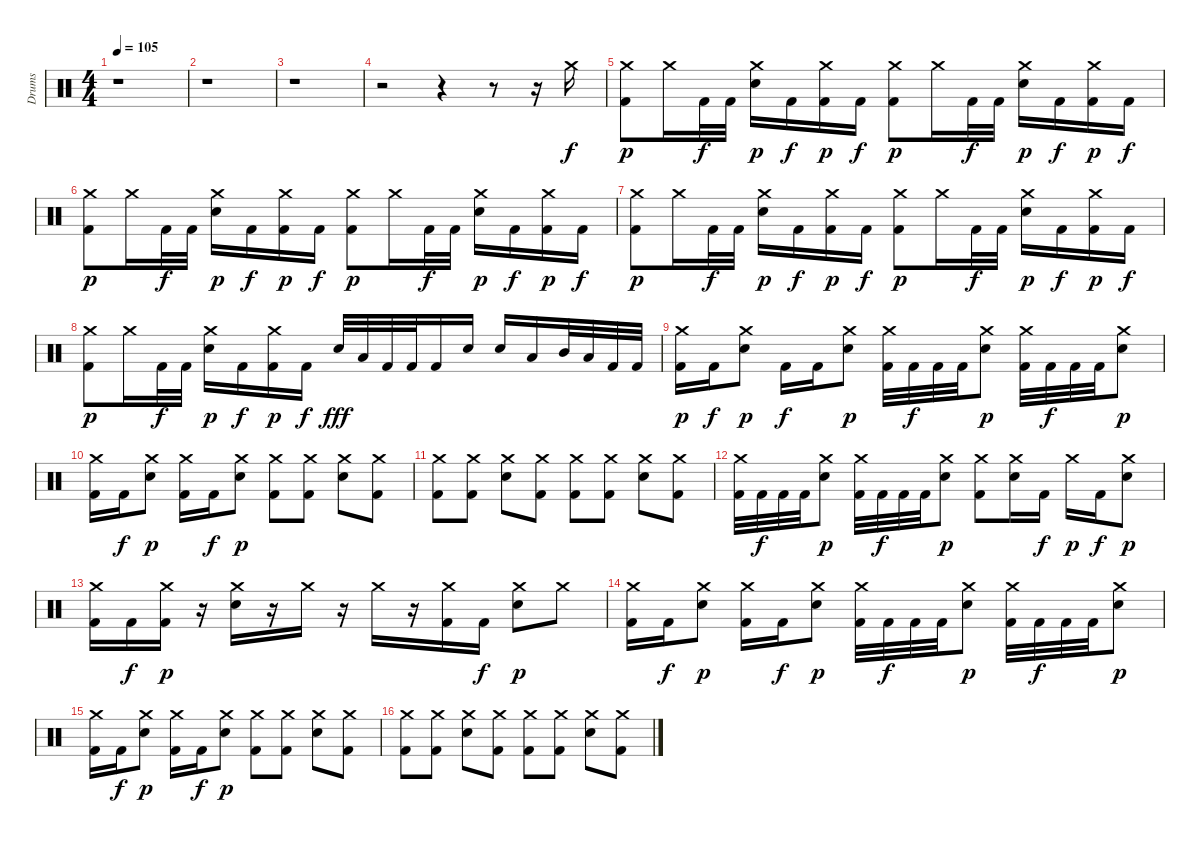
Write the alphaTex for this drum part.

\track ("Drums" "Drums") {instrument percussion}
\staff {score}
\articulation defaults
\ts (4 4)
\tempo 105
\clef neutral
\ks c
r.1{dy f} |
r.1 |
r.1 |
r.2 r.4 r.8 r.16 "Crash medium (hit)".16 |
("Crash medium (hit)" "Kick (hit) 2").8{dy p} "Crash medium (hit)".16 "Kick (hit) 2".32{dy f} "Kick (hit) 2".32 ("Crash medium (hit)" "Electric Snare (hit)").16{dy p} "Kick (hit) 2".16{dy f} ("Crash medium (hit)" "Kick (hit) 2").16{dy p} "Kick (hit) 2".16{dy f} ("Crash medium (hit)" "Kick (hit) 2").8{dy p} "Crash medium (hit)".16 "Kick (hit) 2".32{dy f} "Kick (hit) 2".32 ("Crash medium (hit)" "Electric Snare (hit)").16{dy p} "Kick (hit) 2".16{dy f} ("Crash medium (hit)" "Kick (hit) 2").16{dy p} "Kick (hit) 2".16{dy f} |
("Crash medium (hit)" "Kick (hit) 2").8{dy p} "Crash medium (hit)".16 "Kick (hit) 2".32{dy f} "Kick (hit) 2".32 ("Crash medium (hit)" "Electric Snare (hit)").16{dy p} "Kick (hit) 2".16{dy f} ("Crash medium (hit)" "Kick (hit) 2").16{dy p} "Kick (hit) 2".16{dy f} ("Crash medium (hit)" "Kick (hit) 2").8{dy p} "Crash medium (hit)".16 "Kick (hit) 2".32{dy f} "Kick (hit) 2".32 ("Crash medium (hit)" "Electric Snare (hit)").16{dy p} "Kick (hit) 2".16{dy f} ("Crash medium (hit)" "Kick (hit) 2").16{dy p} "Kick (hit) 2".16{dy f} |
("Crash medium (hit)" "Kick (hit) 2").8{dy p} "Crash medium (hit)".16 "Kick (hit) 2".32{dy f} "Kick (hit) 2".32 ("Crash medium (hit)" "Electric Snare (hit)").16{dy p} "Kick (hit) 2".16{dy f} ("Crash medium (hit)" "Kick (hit) 2").16{dy p} "Kick (hit) 2".16{dy f} ("Crash medium (hit)" "Kick (hit) 2").8{dy p} "Crash medium (hit)".16 "Kick (hit) 2".32{dy f} "Kick (hit) 2".32 ("Crash medium (hit)" "Electric Snare (hit)").16{dy p} "Kick (hit) 2".16{dy f} ("Crash medium (hit)" "Kick (hit) 2").16{dy p} "Kick (hit) 2".16{dy f} |
("Crash medium (hit)" "Kick (hit) 2").8{dy p} "Crash medium (hit)".16 "Kick (hit) 2".32{dy f} "Kick (hit) 2".32 ("Crash medium (hit)" "Electric Snare (hit)").16{dy p} "Kick (hit) 2".16{dy f} ("Crash medium (hit)" "Kick (hit) 2").16{dy p} "Kick (hit) 2".16{dy f} "Electric Snare (hit)".32{dy fff} "Low Tom (hit)".32 "Kick (hit) 2".32 "Kick (hit) 2".32 "Kick (hit) 2".16 "Electric Snare (hit)".16 "Electric Snare (hit)".16 "Low Tom (hit)".16 "Mid Tom (hit)".32 "Low Tom (hit)".32 "Kick (hit) 2".32 "Kick (hit) 2".32 |
("Crash medium (hit)" "Kick (hit) 2").16{dy p} "Kick (hit) 2".16{dy f} ("Crash medium (hit)" "Electric Snare (hit)").8{dy p} "Kick (hit) 2".16{dy f} "Kick (hit) 2".16 ("Crash medium (hit)" "Electric Snare (hit)").8{dy p} ("Crash medium (hit)" "Kick (hit) 2").32 "Kick (hit) 2".32{dy f} "Kick (hit) 2".32 "Kick (hit) 2".32 ("Crash medium (hit)" "Electric Snare (hit)").8{dy p} ("Crash medium (hit)" "Kick (hit) 2").32 "Kick (hit) 2".32{dy f} "Kick (hit) 2".32 "Kick (hit) 2".32 ("Crash medium (hit)" "Electric Snare (hit)").8{dy p} |
("Crash medium (hit)" "Kick (hit) 2").16 "Kick (hit) 2".16{dy f} ("Crash medium (hit)" "Electric Snare (hit)").8{dy p} ("Crash medium (hit)" "Kick (hit) 2").16 "Kick (hit) 2".16{dy f} ("Crash medium (hit)" "Electric Snare (hit)").8{dy p} ("Crash medium (hit)" "Kick (hit) 2").8 ("Crash medium (hit)" "Kick (hit) 2").8 ("Crash medium (hit)" "Electric Snare (hit)").8 ("Crash medium (hit)" "Kick (hit) 2").8 |
("Crash medium (hit)" "Kick (hit) 2").8 ("Crash medium (hit)" "Kick (hit) 2").8 ("Crash medium (hit)" "Electric Snare (hit)").8 ("Crash medium (hit)" "Kick (hit) 2").8 ("Crash medium (hit)" "Kick (hit) 2").8 ("Crash medium (hit)" "Kick (hit) 2").8 ("Crash medium (hit)" "Electric Snare (hit)").8 ("Crash medium (hit)" "Kick (hit) 2").8 |
("Crash medium (hit)" "Kick (hit) 2").32 "Kick (hit) 2".32{dy f} "Kick (hit) 2".32 "Kick (hit) 2".32 ("Crash medium (hit)" "Electric Snare (hit)").8{dy p} ("Crash medium (hit)" "Kick (hit) 2").32 "Kick (hit) 2".32{dy f} "Kick (hit) 2".32 "Kick (hit) 2".32 ("Crash medium (hit)" "Electric Snare (hit)").8{dy p} ("Crash medium (hit)" "Kick (hit) 2").8 ("Crash medium (hit)" "Electric Snare (hit)").16 "Kick (hit) 2".16{dy f} "Crash medium (hit)".16{dy p} "Kick (hit) 2".16{dy f} ("Crash medium (hit)" "Electric Snare (hit)").8{dy p} |
("Crash medium (hit)" "Kick (hit) 2").16 "Kick (hit) 2".16{dy f} ("Crash medium (hit)" "Kick (hit) 2").16{dy p} r.16 ("Crash medium (hit)" "Electric Snare (hit)").16 r.16 "Crash medium (hit)".16 r.16 "Crash medium (hit)".16 r.16 ("Crash medium (hit)" "Kick (hit) 2").16 "Kick (hit) 2".16{dy f} ("Crash medium (hit)" "Electric Snare (hit)").8{dy p} "Crash medium (hit)".8 |
("Crash medium (hit)" "Kick (hit) 2").16 "Kick (hit) 2".16{dy f} ("Crash medium (hit)" "Electric Snare (hit)").8{dy p} ("Crash medium (hit)" "Kick (hit) 2").16 "Kick (hit) 2".16{dy f} ("Crash medium (hit)" "Electric Snare (hit)").8{dy p} ("Crash medium (hit)" "Kick (hit) 2").32 "Kick (hit) 2".32{dy f} "Kick (hit) 2".32 "Kick (hit) 2".32 ("Crash medium (hit)" "Electric Snare (hit)").8{dy p} ("Crash medium (hit)" "Kick (hit) 2").32 "Kick (hit) 2".32{dy f} "Kick (hit) 2".32 "Kick (hit) 2".32 ("Crash medium (hit)" "Electric Snare (hit)").8{dy p} |
("Crash medium (hit)" "Kick (hit) 2").16 "Kick (hit) 2".16{dy f} ("Crash medium (hit)" "Electric Snare (hit)").8{dy p} ("Crash medium (hit)" "Kick (hit) 2").16 "Kick (hit) 2".16{dy f} ("Crash medium (hit)" "Electric Snare (hit)").8{dy p} ("Crash medium (hit)" "Kick (hit) 2").8 ("Crash medium (hit)" "Kick (hit) 2").8 ("Crash medium (hit)" "Electric Snare (hit)").8 ("Crash medium (hit)" "Kick (hit) 2").8 |
("Crash medium (hit)" "Kick (hit) 2").8 ("Crash medium (hit)" "Kick (hit) 2").8 ("Crash medium (hit)" "Electric Snare (hit)").8 ("Crash medium (hit)" "Kick (hit) 2").8 ("Crash medium (hit)" "Kick (hit) 2").8 ("Crash medium (hit)" "Kick (hit) 2").8 ("Crash medium (hit)" "Electric Snare (hit)").8 ("Crash medium (hit)" "Kick (hit) 2").8
